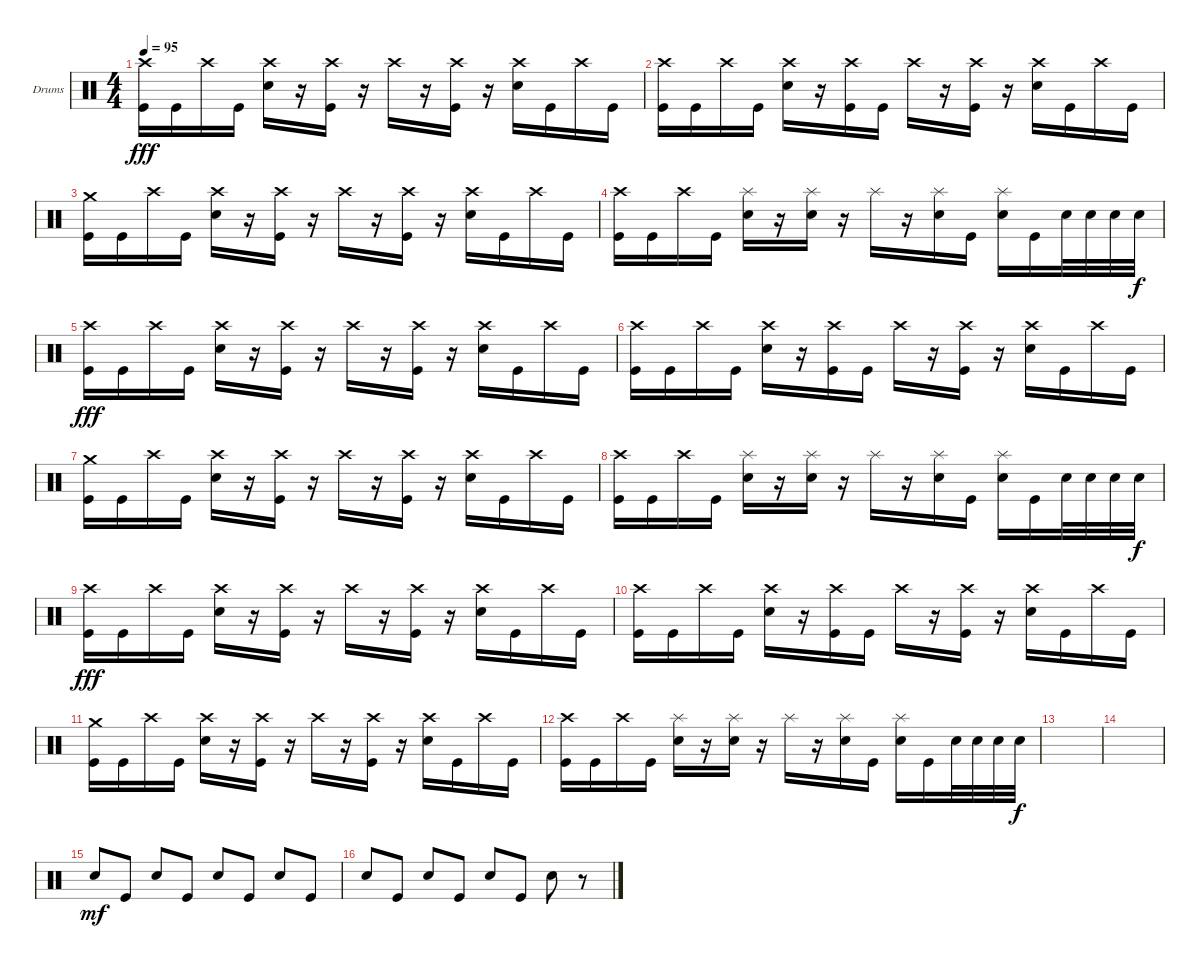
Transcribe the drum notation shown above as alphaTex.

\bracketExtendMode groupsimilarinstruments
\firstSystemTrackNameOrientation horizontal
\otherSystemsTrackNameOrientation horizontal
\track ("Drumkit" "Drums") {instrument percussion}
\staff {score}
\articulation defaults
\ts (4 4)
\tempo 95
\clef neutral
\ks c
("Crash high (hit)" "Kick (hit)").16{dy fff} "Kick (hit)".16 "Crash high (hit)".16 "Kick (hit)".16 ("Crash high (hit)" "Snare (hit) 2").16 r.16 ("Crash high (hit)" "Kick (hit)").16 r.16 "Crash high (hit)".16 r.16 ("Crash high (hit)" "Kick (hit)").16 r.16 ("Crash high (hit)" "Snare (hit) 2").16 "Kick (hit)".16 "Crash high (hit)".16 "Kick (hit)".16 |
("Crash high (hit)" "Kick (hit)").16 "Kick (hit)".16 "Crash high (hit)".16 "Kick (hit)".16 ("Crash high (hit)" "Snare (hit) 2").16 r.16 ("Crash high (hit)" "Kick (hit)").16 "Kick (hit)".16 "Crash high (hit)".16 r.16 ("Crash high (hit)" "Kick (hit)").16 r.16 ("Crash high (hit)" "Snare (hit) 2").16 "Kick (hit)".16 "Crash high (hit)".16 "Kick (hit)".16 |
("Crash medium (hit)" "Kick (hit)").16 "Kick (hit)".16 "Crash high (hit)".16 "Kick (hit)".16 ("Crash high (hit)" "Snare (hit) 2").16 r.16 ("Crash high (hit)" "Kick (hit)").16 r.16 "Crash high (hit)".16 r.16 ("Crash high (hit)" "Kick (hit)").16 r.16 ("Crash high (hit)" "Snare (hit) 2").16 "Kick (hit)".16 "Crash high (hit)".16 "Kick (hit)".16 |
("Crash high (hit)" "Kick (hit)").16 "Kick (hit)".16 "Crash high (hit)".16 "Kick (hit)".16 ("Splash (hit)" "Snare (hit) 2").16 r.16 ("Splash (hit)" "Snare (hit) 2").16 r.16 "Splash (hit)".16 r.16 ("Splash (hit)" "Snare (hit) 2").16 "Kick (hit)".16 ("Splash (hit)" "Snare (hit) 2").16 "Kick (hit)".16 "Snare (hit) 2".32 "Snare (hit) 2".32 "Snare (hit) 2".32 "Snare (hit) 2".32{dy f} |
("Crash high (hit)" "Kick (hit)").16{dy fff} "Kick (hit)".16 "Crash high (hit)".16 "Kick (hit)".16 ("Crash high (hit)" "Snare (hit) 2").16 r.16 ("Crash high (hit)" "Kick (hit)").16 r.16 "Crash high (hit)".16 r.16 ("Crash high (hit)" "Kick (hit)").16 r.16 ("Crash high (hit)" "Snare (hit) 2").16 "Kick (hit)".16 "Crash high (hit)".16 "Kick (hit)".16 |
("Crash high (hit)" "Kick (hit)").16 "Kick (hit)".16 "Crash high (hit)".16 "Kick (hit)".16 ("Crash high (hit)" "Snare (hit) 2").16 r.16 ("Crash high (hit)" "Kick (hit)").16 "Kick (hit)".16 "Crash high (hit)".16 r.16 ("Crash high (hit)" "Kick (hit)").16 r.16 ("Crash high (hit)" "Snare (hit) 2").16 "Kick (hit)".16 "Crash high (hit)".16 "Kick (hit)".16 |
("Crash medium (hit)" "Kick (hit)").16 "Kick (hit)".16 "Crash high (hit)".16 "Kick (hit)".16 ("Crash high (hit)" "Snare (hit) 2").16 r.16 ("Crash high (hit)" "Kick (hit)").16 r.16 "Crash high (hit)".16 r.16 ("Crash high (hit)" "Kick (hit)").16 r.16 ("Crash high (hit)" "Snare (hit) 2").16 "Kick (hit)".16 "Crash high (hit)".16 "Kick (hit)".16 |
("Crash high (hit)" "Kick (hit)").16 "Kick (hit)".16 "Crash high (hit)".16 "Kick (hit)".16 ("Splash (hit)" "Snare (hit) 2").16 r.16 ("Splash (hit)" "Snare (hit) 2").16 r.16 "Splash (hit)".16 r.16 ("Splash (hit)" "Snare (hit) 2").16 "Kick (hit)".16 ("Splash (hit)" "Snare (hit) 2").16 "Kick (hit)".16 "Snare (hit) 2".32 "Snare (hit) 2".32 "Snare (hit) 2".32 "Snare (hit) 2".32{dy f} |
("Crash high (hit)" "Kick (hit)").16{dy fff} "Kick (hit)".16 "Crash high (hit)".16 "Kick (hit)".16 ("Crash high (hit)" "Snare (hit) 2").16 r.16 ("Crash high (hit)" "Kick (hit)").16 r.16 "Crash high (hit)".16 r.16 ("Crash high (hit)" "Kick (hit)").16 r.16 ("Crash high (hit)" "Snare (hit) 2").16 "Kick (hit)".16 "Crash high (hit)".16 "Kick (hit)".16 |
("Crash high (hit)" "Kick (hit)").16 "Kick (hit)".16 "Crash high (hit)".16 "Kick (hit)".16 ("Crash high (hit)" "Snare (hit) 2").16 r.16 ("Crash high (hit)" "Kick (hit)").16 "Kick (hit)".16 "Crash high (hit)".16 r.16 ("Crash high (hit)" "Kick (hit)").16 r.16 ("Crash high (hit)" "Snare (hit) 2").16 "Kick (hit)".16 "Crash high (hit)".16 "Kick (hit)".16 |
("Crash medium (hit)" "Kick (hit)").16 "Kick (hit)".16 "Crash high (hit)".16 "Kick (hit)".16 ("Crash high (hit)" "Snare (hit) 2").16 r.16 ("Crash high (hit)" "Kick (hit)").16 r.16 "Crash high (hit)".16 r.16 ("Crash high (hit)" "Kick (hit)").16 r.16 ("Crash high (hit)" "Snare (hit) 2").16 "Kick (hit)".16 "Crash high (hit)".16 "Kick (hit)".16 |
("Crash high (hit)" "Kick (hit)").16 "Kick (hit)".16 "Crash high (hit)".16 "Kick (hit)".16 ("Splash (hit)" "Snare (hit) 2").16 r.16 ("Splash (hit)" "Snare (hit) 2").16 r.16 "Splash (hit)".16 r.16 ("Splash (hit)" "Snare (hit) 2").16 "Kick (hit)".16 ("Splash (hit)" "Snare (hit) 2").16 "Kick (hit)".16 "Snare (hit) 2".32 "Snare (hit) 2".32 "Snare (hit) 2".32 "Snare (hit) 2".32{dy f} |
|
|
"Snare (hit) 2".8{dy mf} "Kick (hit)".8 "Snare (hit) 2".8 "Kick (hit)".8 "Snare (hit) 2".8 "Kick (hit)".8 "Snare (hit) 2".8 "Kick (hit)".8 |
"Snare (hit) 2".8 "Kick (hit)".8 "Snare (hit) 2".8 "Kick (hit)".8 "Snare (hit) 2".8 "Kick (hit)".8 "Snare (hit) 2".8 r.8
